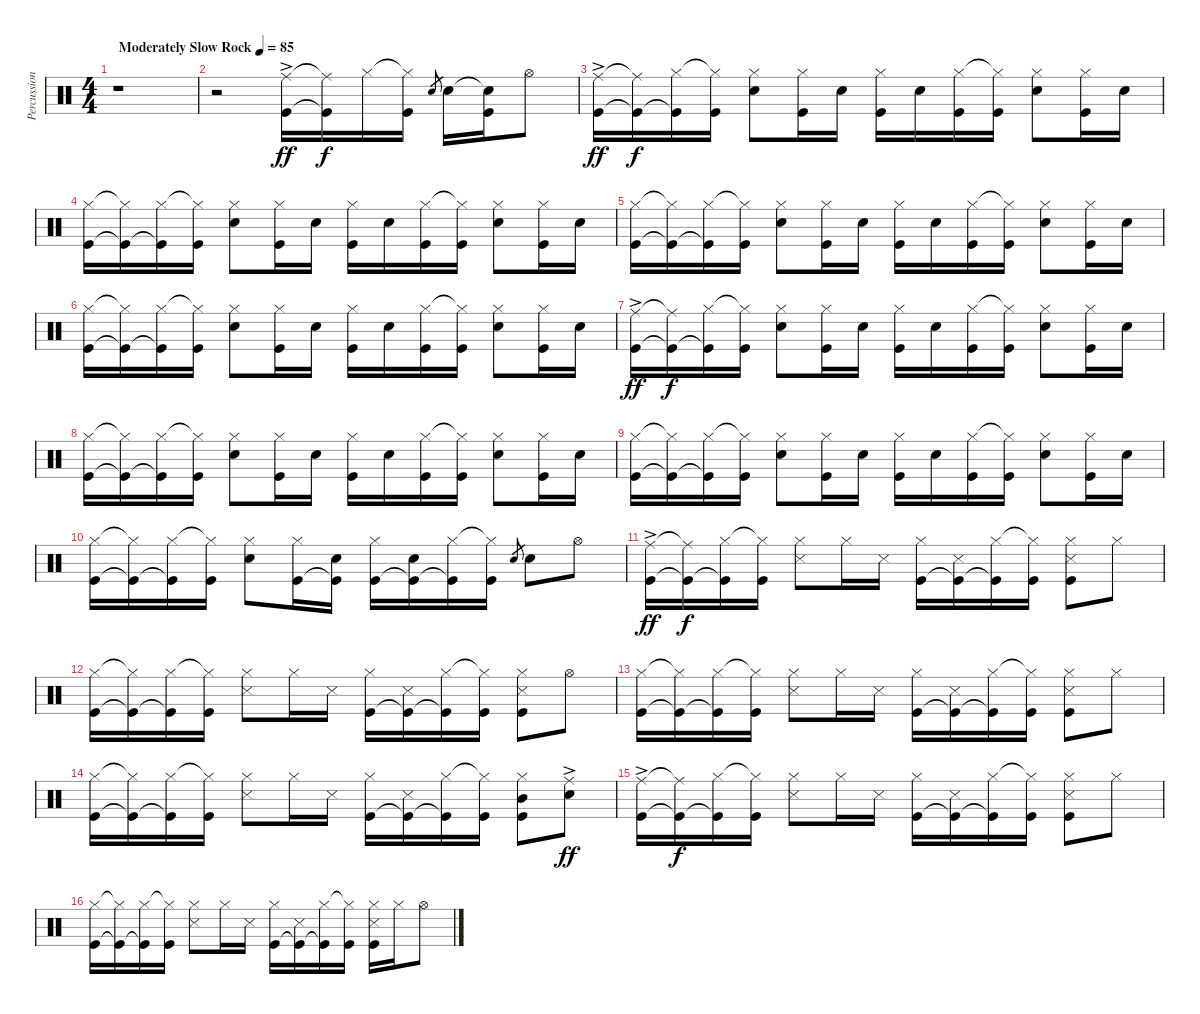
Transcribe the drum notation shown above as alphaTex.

\track ("Percussion" "Percussion") {instrument percussion}
\staff {score}
\articulation defaults
\ts (4 4)
\tempo (85 "Moderately Slow Rock")
\clef neutral
\ks c
r.1{dy ff} |
r.2 ("Ride (middle)"{ac} "Kick (hit)").16 ("Ride (middle)"{t} "Kick (hit)"{t}).16{dy f} "Hi-Hat (closed)".16 ("Hi-Hat (closed)"{t} "Kick (hit)").16 "Snare (hit) 2".8{gr} "Snare (hit) 2".16 ("Snare (hit) 2"{t} "Kick (hit)").16 "Hi-Hat (open)".8 |
("Ride (middle)"{ac} "Kick (hit)").16{dy ff} ("Ride (middle)"{t} "Kick (hit)"{t}).16{dy f} ("Hi-Hat (closed)" "Kick (hit)"{t}).16 ("Hi-Hat (closed)"{t} "Kick (hit)").16 ("Hi-Hat (closed)" "Snare (hit) 2").8 ("Hi-Hat (closed)" "Kick (hit)").16 "Snare (hit) 2".16 ("Hi-Hat (closed)" "Kick (hit)").16 "Snare (hit) 2".16 ("Hi-Hat (closed)" "Kick (hit)").16 ("Hi-Hat (closed)"{t} "Kick (hit)").16 ("Hi-Hat (closed)" "Snare (hit) 2").8 ("Hi-Hat (closed)" "Kick (hit)").16 "Snare (hit) 2".16 |
("Hi-Hat (closed)" "Kick (hit)").16 ("Hi-Hat (closed)"{t} "Kick (hit)"{t}).16 ("Hi-Hat (closed)" "Kick (hit)"{t}).16 ("Hi-Hat (closed)"{t} "Kick (hit)").16 ("Hi-Hat (closed)" "Snare (hit) 2").8 ("Hi-Hat (closed)" "Kick (hit)").16 "Snare (hit) 2".16 ("Hi-Hat (closed)" "Kick (hit)").16 "Snare (hit) 2".16 ("Hi-Hat (closed)" "Kick (hit)").16 ("Hi-Hat (closed)"{t} "Kick (hit)").16 ("Hi-Hat (closed)" "Snare (hit) 2").8 ("Hi-Hat (closed)" "Kick (hit)").16 "Snare (hit) 2".16 |
("Hi-Hat (closed)" "Kick (hit)").16 ("Hi-Hat (closed)"{t} "Kick (hit)"{t}).16 ("Hi-Hat (closed)" "Kick (hit)"{t}).16 ("Hi-Hat (closed)"{t} "Kick (hit)").16 ("Hi-Hat (closed)" "Snare (hit) 2").8 ("Hi-Hat (closed)" "Kick (hit)").16 "Snare (hit) 2".16 ("Hi-Hat (closed)" "Kick (hit)").16 "Snare (hit) 2".16 ("Hi-Hat (closed)" "Kick (hit)").16 ("Hi-Hat (closed)"{t} "Kick (hit)").16 ("Hi-Hat (closed)" "Snare (hit) 2").8 ("Hi-Hat (closed)" "Kick (hit)").16 "Snare (hit) 2".16 |
("Hi-Hat (closed)" "Kick (hit)").16 ("Hi-Hat (closed)"{t} "Kick (hit)"{t}).16 ("Hi-Hat (closed)" "Kick (hit)"{t}).16 ("Hi-Hat (closed)"{t} "Kick (hit)").16 ("Hi-Hat (closed)" "Snare (hit) 2").8 ("Hi-Hat (closed)" "Kick (hit)").16 "Snare (hit) 2".16 ("Hi-Hat (closed)" "Kick (hit)").16 "Snare (hit) 2".16 ("Hi-Hat (closed)" "Kick (hit)").16 ("Hi-Hat (closed)"{t} "Kick (hit)").16 ("Hi-Hat (closed)" "Snare (hit) 2").8 ("Hi-Hat (closed)" "Kick (hit)").16 "Snare (hit) 2".16 |
("Ride (middle)"{ac} "Kick (hit)").16{dy ff} ("Ride (middle)"{t} "Kick (hit)"{t}).16{dy f} ("Hi-Hat (closed)" "Kick (hit)"{t}).16 ("Hi-Hat (closed)"{t} "Kick (hit)").16 ("Hi-Hat (closed)" "Snare (hit) 2").8 ("Hi-Hat (closed)" "Kick (hit)").16 "Snare (hit) 2".16 ("Hi-Hat (closed)" "Kick (hit)").16 "Snare (hit) 2".16 ("Hi-Hat (closed)" "Kick (hit)").16 ("Hi-Hat (closed)"{t} "Kick (hit)").16 ("Hi-Hat (closed)" "Snare (hit) 2").8 ("Hi-Hat (closed)" "Kick (hit)").16 "Snare (hit) 2".16 |
("Hi-Hat (closed)" "Kick (hit)").16 ("Hi-Hat (closed)"{t} "Kick (hit)"{t}).16 ("Hi-Hat (closed)" "Kick (hit)"{t}).16 ("Hi-Hat (closed)"{t} "Kick (hit)").16 ("Hi-Hat (closed)" "Snare (hit) 2").8 ("Hi-Hat (closed)" "Kick (hit)").16 "Snare (hit) 2".16 ("Hi-Hat (closed)" "Kick (hit)").16 "Snare (hit) 2".16 ("Hi-Hat (closed)" "Kick (hit)").16 ("Hi-Hat (closed)"{t} "Kick (hit)").16 ("Hi-Hat (closed)" "Snare (hit) 2").8 ("Hi-Hat (closed)" "Kick (hit)").16 "Snare (hit) 2".16 |
("Hi-Hat (closed)" "Kick (hit)").16 ("Hi-Hat (closed)"{t} "Kick (hit)"{t}).16 ("Hi-Hat (closed)" "Kick (hit)"{t}).16 ("Hi-Hat (closed)"{t} "Kick (hit)").16 ("Hi-Hat (closed)" "Snare (hit) 2").8 ("Hi-Hat (closed)" "Kick (hit)").16 "Snare (hit) 2".16 ("Hi-Hat (closed)" "Kick (hit)").16 "Snare (hit) 2".16 ("Hi-Hat (closed)" "Kick (hit)").16 ("Hi-Hat (closed)"{t} "Kick (hit)").16 ("Hi-Hat (closed)" "Snare (hit) 2").8 ("Hi-Hat (closed)" "Kick (hit)").16 "Snare (hit) 2".16 |
("Hi-Hat (closed)" "Kick (hit)").16 ("Hi-Hat (closed)"{t} "Kick (hit)"{t}).16 ("Hi-Hat (closed)" "Kick (hit)"{t}).16 ("Hi-Hat (closed)"{t} "Kick (hit)").16 ("Hi-Hat (closed)" "Snare (hit) 2").8 ("Hi-Hat (closed)" "Kick (hit)").16 ("Snare (hit) 2" "Kick (hit)"{t}).16 ("Hi-Hat (closed)" "Kick (hit)").16 ("Snare (hit) 2" "Kick (hit)"{t}).16 ("Hi-Hat (closed)" "Kick (hit)"{t}).16 ("Hi-Hat (closed)"{t} "Kick (hit)").16 "Snare (hit) 2".8{gr} "Snare (hit) 2".8 "Hi-Hat (open)".8 |
("Ride (middle)"{ac} "Kick (hit)").16{dy ff} ("Ride (middle)"{t} "Kick (hit)"{t}).16{dy f} ("Hi-Hat (closed)" "Kick (hit)"{t}).16 ("Hi-Hat (closed)"{t} "Kick (hit)").16 ("Hi-Hat (closed)" "Snare (side stick) 3").8 "Hi-Hat (closed)".16 "Snare (side stick) 3".16 ("Hi-Hat (closed)" "Kick (hit)").16 ("Snare (side stick) 3" "Kick (hit)"{t}).16 ("Hi-Hat (closed)" "Kick (hit)"{t}).16 ("Hi-Hat (closed)"{t} "Kick (hit)").16 ("Hi-Hat (closed)" "Snare (side stick) 3" "Kick (hit)").8 "Hi-Hat (closed)".8 |
("Hi-Hat (closed)" "Kick (hit)").16 ("Hi-Hat (closed)"{t} "Kick (hit)"{t}).16 ("Hi-Hat (closed)" "Kick (hit)"{t}).16 ("Hi-Hat (closed)"{t} "Kick (hit)").16 ("Hi-Hat (closed)" "Snare (side stick) 3").8 "Hi-Hat (closed)".16 "Snare (side stick) 3".16 ("Hi-Hat (closed)" "Kick (hit)").16 ("Snare (side stick) 3" "Kick (hit)"{t}).16 ("Hi-Hat (closed)" "Kick (hit)"{t}).16 ("Hi-Hat (closed)"{t} "Kick (hit)").16 ("Hi-Hat (closed)" "Snare (side stick) 3" "Kick (hit)").8 "Hi-Hat (open)".8 |
("Hi-Hat (closed)" "Kick (hit)").16 ("Hi-Hat (closed)"{t} "Kick (hit)"{t}).16 ("Hi-Hat (closed)" "Kick (hit)"{t}).16 ("Hi-Hat (closed)"{t} "Kick (hit)").16 ("Hi-Hat (closed)" "Snare (side stick) 3").8 "Hi-Hat (closed)".16 "Snare (side stick) 3".16 ("Hi-Hat (closed)" "Kick (hit)").16 ("Snare (side stick) 3" "Kick (hit)"{t}).16 ("Hi-Hat (closed)" "Kick (hit)"{t}).16 ("Hi-Hat (closed)"{t} "Kick (hit)").16 ("Hi-Hat (closed)" "Snare (side stick) 3" "Kick (hit)").8 "Hi-Hat (closed)".8 |
("Hi-Hat (closed)" "Kick (hit)").16 ("Hi-Hat (closed)"{t} "Kick (hit)"{t}).16 ("Hi-Hat (closed)" "Kick (hit)"{t}).16 ("Hi-Hat (closed)"{t} "Kick (hit)").16 ("Hi-Hat (closed)" "Snare (side stick) 3").8 "Hi-Hat (closed)".16 "Snare (side stick) 3".16 ("Hi-Hat (closed)" "Kick (hit)").16 ("Snare (side stick) 3" "Kick (hit)"{t}).16 ("Hi-Hat (closed)" "Kick (hit)"{t}).16 ("Hi-Hat (closed)"{t} "Kick (hit)").16 ("Hi-Hat (closed)" "Mid Tom (hit)" "Kick (hit)").8 ("Ride (middle)"{ac} "Snare (hit) 2").8{dy ff} |
("Ride (middle)"{ac} "Kick (hit)").16 ("Ride (middle)"{t} "Kick (hit)"{t}).16{dy f} ("Hi-Hat (closed)" "Kick (hit)"{t}).16 ("Hi-Hat (closed)"{t} "Kick (hit)").16 ("Hi-Hat (closed)" "Snare (side stick) 3").8 "Hi-Hat (closed)".16 "Snare (side stick) 3".16 ("Hi-Hat (closed)" "Kick (hit)").16 ("Snare (side stick) 3" "Kick (hit)"{t}).16 ("Hi-Hat (closed)" "Kick (hit)"{t}).16 ("Hi-Hat (closed)"{t} "Kick (hit)").16 ("Hi-Hat (closed)" "Snare (side stick) 3" "Kick (hit)").8 "Hi-Hat (closed)".8 |
("Hi-Hat (closed)" "Kick (hit)").16 ("Hi-Hat (closed)"{t} "Kick (hit)"{t}).16 ("Hi-Hat (closed)" "Kick (hit)"{t}).16 ("Hi-Hat (closed)"{t} "Kick (hit)").16 ("Hi-Hat (closed)" "Snare (side stick) 3").8 "Hi-Hat (closed)".16 "Snare (side stick) 3".16 ("Hi-Hat (closed)" "Kick (hit)").16 ("Snare (side stick) 3" "Kick (hit)"{t}).16 ("Hi-Hat (closed)" "Kick (hit)"{t}).16 ("Hi-Hat (closed)"{t} "Kick (hit)").16 ("Hi-Hat (closed)" "Snare (side stick) 3" "Kick (hit)").16 "Hi-Hat (closed)".16 "Hi-Hat (open)".8
